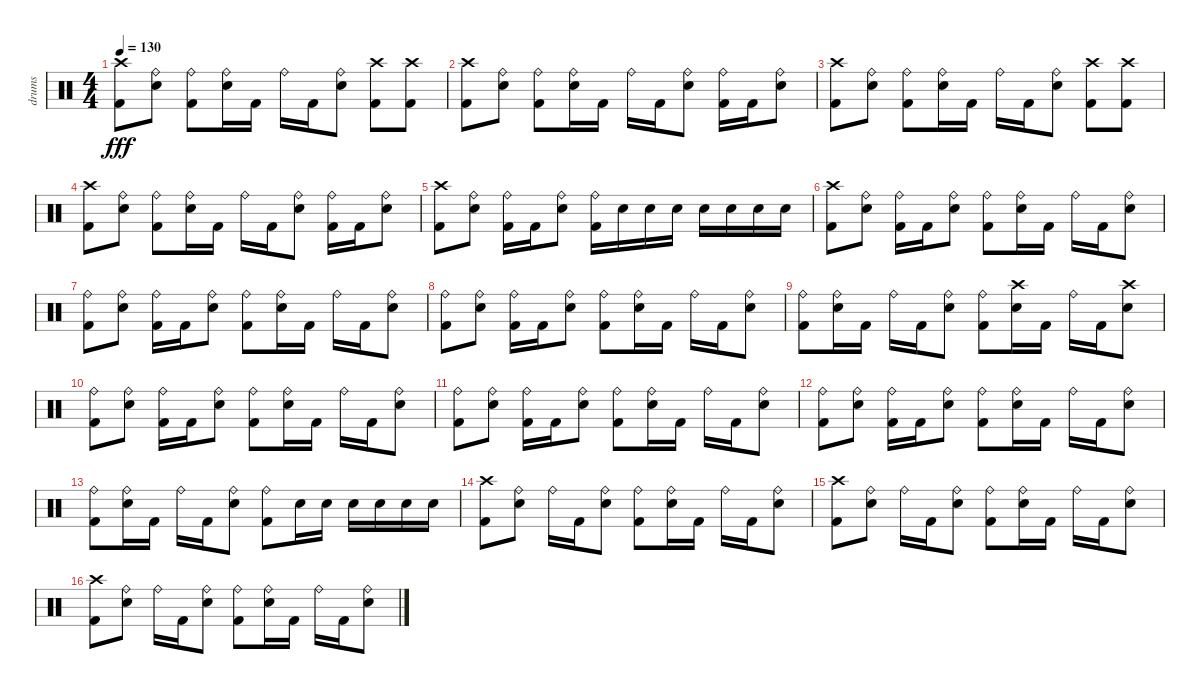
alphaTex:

\track ("drums" "drums") {instrument percussion}
\staff {score}
\articulation defaults
\ts (4 4)
\tempo 130
\clef neutral
\ks c
("Crash high (hit)" "Kick (hit) 2").8{dy fff} ("Ride (bell)" "Snare (hit) 2").8 ("Ride (bell)" "Kick (hit) 2").8 ("Ride (bell)" "Snare (hit) 2").16 "Kick (hit) 2".16 "Ride (bell)".16 "Kick (hit) 2".16 ("Ride (bell)" "Snare (hit) 2").8 ("Crash high (hit)" "Kick (hit) 2").8 ("Crash high (hit)" "Kick (hit) 2").8 |
("Crash high (hit)" "Kick (hit) 2").8 ("Ride (bell)" "Snare (hit) 2").8 ("Ride (bell)" "Kick (hit) 2").8 ("Ride (bell)" "Snare (hit) 2").16 "Kick (hit) 2".16 "Ride (bell)".16 "Kick (hit) 2".16 ("Ride (bell)" "Snare (hit) 2").8 ("Ride (bell)" "Kick (hit) 2").16 "Kick (hit) 2".16 ("Ride (bell)" "Snare (hit) 2").8 |
("Crash high (hit)" "Kick (hit) 2").8 ("Ride (bell)" "Snare (hit) 2").8 ("Ride (bell)" "Kick (hit) 2").8 ("Ride (bell)" "Snare (hit) 2").16 "Kick (hit) 2".16 "Ride (bell)".16 "Kick (hit) 2".16 ("Ride (bell)" "Snare (hit) 2").8 ("Crash high (hit)" "Kick (hit) 2").8 ("Crash high (hit)" "Kick (hit) 2").8 |
("Crash high (hit)" "Kick (hit) 2").8 ("Ride (bell)" "Snare (hit) 2").8 ("Ride (bell)" "Kick (hit) 2").8 ("Ride (bell)" "Snare (hit) 2").16 "Kick (hit) 2".16 "Ride (bell)".16 "Kick (hit) 2".16 ("Ride (bell)" "Snare (hit) 2").8 ("Ride (bell)" "Kick (hit) 2").16 "Kick (hit) 2".16 ("Ride (bell)" "Snare (hit) 2").8 |
("Crash high (hit)" "Kick (hit) 2").8 ("Ride (bell)" "Snare (hit) 2").8 ("Kick (hit) 2" "Ride (bell)").16 "Kick (hit) 2".16 ("Ride (bell)" "Snare (hit) 2").8 ("Ride (bell)" "Kick (hit) 2").16 "Snare (hit) 2".16 "Snare (hit) 2".16 "Snare (hit) 2".16 "Snare (hit) 2".16 "Snare (hit) 2".16 "Snare (hit) 2".16 "Snare (hit) 2".16 |
("Crash high (hit)" "Kick (hit) 2").8 ("Ride (bell)" "Snare (hit) 2").8 ("Ride (bell)" "Kick (hit) 2").16 "Kick (hit) 2".16 ("Ride (bell)" "Snare (hit) 2").8 ("Ride (bell)" "Kick (hit) 2").8 ("Ride (bell)" "Snare (hit) 2").16 "Kick (hit) 2".16 "Ride (bell)".16 "Kick (hit) 2".16 ("Ride (bell)" "Snare (hit) 2").8 |
("Ride (bell)" "Kick (hit) 2").8 ("Ride (bell)" "Snare (hit) 2").8 ("Ride (bell)" "Kick (hit) 2").16 "Kick (hit) 2".16 ("Ride (bell)" "Snare (hit) 2").8 ("Ride (bell)" "Kick (hit) 2").8 ("Ride (bell)" "Snare (hit) 2").16 "Kick (hit) 2".16 "Ride (bell)".16 "Kick (hit) 2".16 ("Ride (bell)" "Snare (hit) 2").8 |
("Ride (bell)" "Kick (hit) 2").8 ("Ride (bell)" "Snare (hit) 2").8 ("Ride (bell)" "Kick (hit) 2").16 "Kick (hit) 2".16 ("Ride (bell)" "Snare (hit) 2").8 ("Ride (bell)" "Kick (hit) 2").8 ("Ride (bell)" "Snare (hit) 2").16 "Kick (hit) 2".16 "Ride (bell)".16 "Kick (hit) 2".16 ("Ride (bell)" "Snare (hit) 2").8 |
("Ride (bell)" "Kick (hit) 2").8 ("Ride (bell)" "Snare (hit) 2").16 "Kick (hit) 2".16 "Ride (bell)".16 "Kick (hit) 2".16 ("Ride (bell)" "Snare (hit) 2").8 ("Ride (bell)" "Kick (hit) 2").8 ("Crash high (hit)" "Snare (hit) 2").16 "Kick (hit) 2".16 "Ride (bell)".16 "Kick (hit) 2".16 ("Crash high (hit)" "Snare (hit) 2").8 |
("Ride (bell)" "Kick (hit) 2").8 ("Ride (bell)" "Snare (hit) 2").8 ("Ride (bell)" "Kick (hit) 2").16 "Kick (hit) 2".16 ("Ride (bell)" "Snare (hit) 2").8 ("Ride (bell)" "Kick (hit) 2").8 ("Ride (bell)" "Snare (hit) 2").16 "Kick (hit) 2".16 "Ride (bell)".16 "Kick (hit) 2".16 ("Ride (bell)" "Snare (hit) 2").8 |
("Ride (bell)" "Kick (hit) 2").8 ("Ride (bell)" "Snare (hit) 2").8 ("Ride (bell)" "Kick (hit) 2").16 "Kick (hit) 2".16 ("Ride (bell)" "Snare (hit) 2").8 ("Ride (bell)" "Kick (hit) 2").8 ("Ride (bell)" "Snare (hit) 2").16 "Kick (hit) 2".16 "Ride (bell)".16 "Kick (hit) 2".16 ("Ride (bell)" "Snare (hit) 2").8 |
("Ride (bell)" "Kick (hit) 2").8 ("Ride (bell)" "Snare (hit) 2").8 ("Ride (bell)" "Kick (hit) 2").16 "Kick (hit) 2".16 ("Ride (bell)" "Snare (hit) 2").8 ("Ride (bell)" "Kick (hit) 2").8 ("Ride (bell)" "Snare (hit) 2").16 "Kick (hit) 2".16 "Ride (bell)".16 "Kick (hit) 2".16 ("Ride (bell)" "Snare (hit) 2").8 |
("Ride (bell)" "Kick (hit) 2").8 ("Ride (bell)" "Snare (hit) 2").16 "Kick (hit) 2".16 "Ride (bell)".16 "Kick (hit) 2".16 ("Ride (bell)" "Snare (hit) 2").8 ("Ride (bell)" "Kick (hit) 2").8 "Snare (hit) 2".16 "Snare (hit) 2".16 "Snare (hit) 2".16 "Snare (hit) 2".16 "Snare (hit) 2".16 "Snare (hit) 2".16 |
("Crash high (hit)" "Kick (hit) 2").8 ("Ride (bell)" "Snare (hit) 2").8 "Ride (bell)".16 "Kick (hit) 2".16 ("Ride (bell)" "Snare (hit) 2").8 ("Ride (bell)" "Kick (hit) 2").8 ("Ride (bell)" "Snare (hit) 2").16 "Kick (hit) 2".16 "Ride (bell)".16 "Kick (hit) 2".16 ("Ride (bell)" "Snare (hit) 2").8 |
("Crash high (hit)" "Kick (hit) 2").8 ("Ride (bell)" "Snare (hit) 2").8 "Ride (bell)".16 "Kick (hit) 2".16 ("Ride (bell)" "Snare (hit) 2").8 ("Ride (bell)" "Kick (hit) 2").8 ("Ride (bell)" "Snare (hit) 2").16 "Kick (hit) 2".16 "Ride (bell)".16 "Kick (hit) 2".16 ("Ride (bell)" "Snare (hit) 2").8 |
("Crash high (hit)" "Kick (hit) 2").8 ("Ride (bell)" "Snare (hit) 2").8 "Ride (bell)".16 "Kick (hit) 2".16 ("Ride (bell)" "Snare (hit) 2").8 ("Ride (bell)" "Kick (hit) 2").8 ("Ride (bell)" "Snare (hit) 2").16 "Kick (hit) 2".16 "Ride (bell)".16 "Kick (hit) 2".16 ("Ride (bell)" "Snare (hit) 2").8
